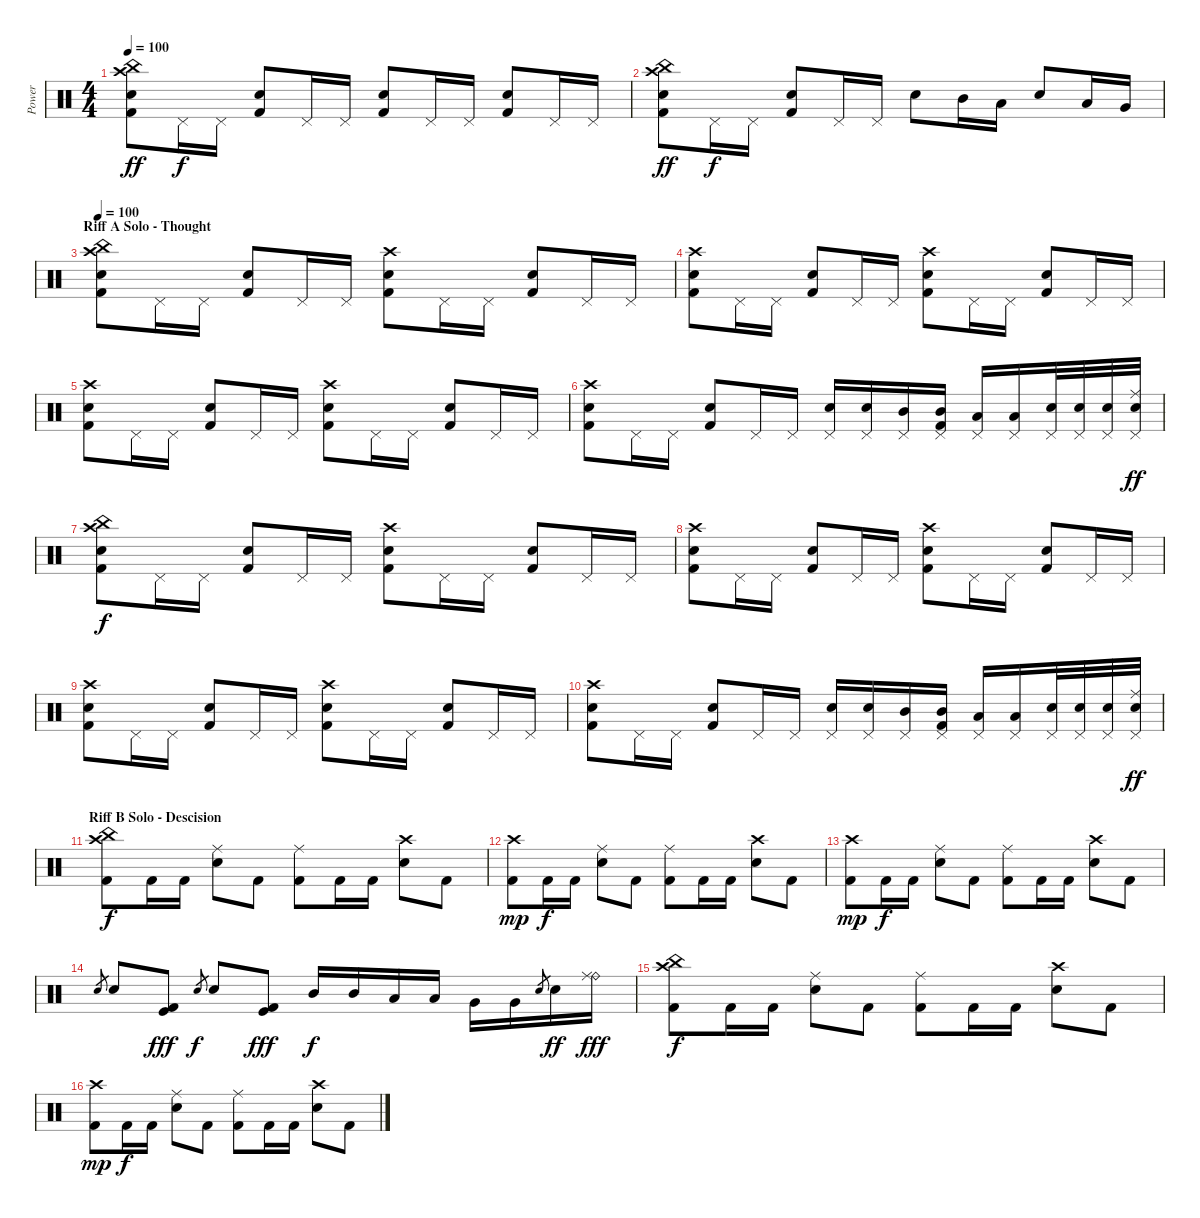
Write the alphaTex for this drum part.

\track ("Power" "Power") {instrument percussion}
\staff {score}
\articulation defaults
\ts (4 4)
\tempo 100
\clef neutral
\ks c
("Crash high (hit)" "China (hit)" "Kick (hit) 2" "Electric Snare (hit)").8{dy ff} "Pedal Hi-Hat (hit)".16{dy f} "Pedal Hi-Hat (hit)".16 ("Kick (hit) 2" "Electric Snare (hit)").8 "Pedal Hi-Hat (hit)".16 "Pedal Hi-Hat (hit)".16 ("Kick (hit) 2" "Electric Snare (hit)").8 "Pedal Hi-Hat (hit)".16 "Pedal Hi-Hat (hit)".16 ("Kick (hit) 2" "Electric Snare (hit)").8 "Pedal Hi-Hat (hit)".16 "Pedal Hi-Hat (hit)".16 |
("Crash high (hit)" "China (hit)" "Kick (hit) 2" "Electric Snare (hit)").8{dy ff} "Pedal Hi-Hat (hit)".16{dy f} "Pedal Hi-Hat (hit)".16 ("Kick (hit) 2" "Electric Snare (hit)").8 "Pedal Hi-Hat (hit)".16 "Pedal Hi-Hat (hit)".16 "Electric Snare (hit)".8 "Mid Tom (hit)".16 "Low Tom (hit)".16 "Electric Snare (hit)".8 "Low Tom (hit)".16 "Very Low Tom (hit)".16 |
\section ("" "Riff A Solo - Thought")
\tempo 100
("China (hit)" "Crash high (hit)" "Kick (hit) 2" "Electric Snare (hit)").8 "Pedal Hi-Hat (hit)".16 "Pedal Hi-Hat (hit)".16 ("Kick (hit) 2" "Electric Snare (hit)").8 "Pedal Hi-Hat (hit)".16 "Pedal Hi-Hat (hit)".16 ("Crash high (hit)" "Kick (hit) 2" "Electric Snare (hit)").8 "Pedal Hi-Hat (hit)".16 "Pedal Hi-Hat (hit)".16 ("Kick (hit) 2" "Electric Snare (hit)").8 "Pedal Hi-Hat (hit)".16 "Pedal Hi-Hat (hit)".16 |
("Crash high (hit)" "Kick (hit) 2" "Electric Snare (hit)").8 "Pedal Hi-Hat (hit)".16 "Pedal Hi-Hat (hit)".16 ("Kick (hit) 2" "Electric Snare (hit)").8 "Pedal Hi-Hat (hit)".16 "Pedal Hi-Hat (hit)".16 ("Crash high (hit)" "Kick (hit) 2" "Electric Snare (hit)").8 "Pedal Hi-Hat (hit)".16 "Pedal Hi-Hat (hit)".16 ("Kick (hit) 2" "Electric Snare (hit)").8 "Pedal Hi-Hat (hit)".16 "Pedal Hi-Hat (hit)".16 |
("Crash high (hit)" "Kick (hit) 2" "Electric Snare (hit)").8 "Pedal Hi-Hat (hit)".16 "Pedal Hi-Hat (hit)".16 ("Kick (hit) 2" "Electric Snare (hit)").8 "Pedal Hi-Hat (hit)".16 "Pedal Hi-Hat (hit)".16 ("Crash high (hit)" "Kick (hit) 2" "Electric Snare (hit)").8 "Pedal Hi-Hat (hit)".16 "Pedal Hi-Hat (hit)".16 ("Kick (hit) 2" "Electric Snare (hit)").8 "Pedal Hi-Hat (hit)".16 "Pedal Hi-Hat (hit)".16 |
("Crash high (hit)" "Kick (hit) 2" "Electric Snare (hit)").8 "Pedal Hi-Hat (hit)".16 "Pedal Hi-Hat (hit)".16 ("Kick (hit) 2" "Electric Snare (hit)").8 "Pedal Hi-Hat (hit)".16 "Pedal Hi-Hat (hit)".16 ("Pedal Hi-Hat (hit)" "Electric Snare (hit)").16 ("Pedal Hi-Hat (hit)" "Electric Snare (hit)").16 ("Pedal Hi-Hat (hit)" "Mid Tom (hit)").16 ("Pedal Hi-Hat (hit)" "Kick (hit) 2" "Mid Tom (hit)").16 ("Pedal Hi-Hat (hit)" "Low Tom (hit)").16 ("Pedal Hi-Hat (hit)" "Low Tom (hit)").16 ("Pedal Hi-Hat (hit)" "Electric Snare (hit)").32 ("Pedal Hi-Hat (hit)" "Electric Snare (hit)").32 ("Pedal Hi-Hat (hit)" "Electric Snare (hit)").32 ("Ride (middle)" "Pedal Hi-Hat (hit)" "Electric Snare (hit)").32{dy ff} |
("China (hit)" "Crash high (hit)" "Kick (hit) 2" "Electric Snare (hit)").8{dy f} "Pedal Hi-Hat (hit)".16 "Pedal Hi-Hat (hit)".16 ("Kick (hit) 2" "Electric Snare (hit)").8 "Pedal Hi-Hat (hit)".16 "Pedal Hi-Hat (hit)".16 ("Crash high (hit)" "Kick (hit) 2" "Electric Snare (hit)").8 "Pedal Hi-Hat (hit)".16 "Pedal Hi-Hat (hit)".16 ("Kick (hit) 2" "Electric Snare (hit)").8 "Pedal Hi-Hat (hit)".16 "Pedal Hi-Hat (hit)".16 |
("Crash high (hit)" "Kick (hit) 2" "Electric Snare (hit)").8 "Pedal Hi-Hat (hit)".16 "Pedal Hi-Hat (hit)".16 ("Kick (hit) 2" "Electric Snare (hit)").8 "Pedal Hi-Hat (hit)".16 "Pedal Hi-Hat (hit)".16 ("Crash high (hit)" "Kick (hit) 2" "Electric Snare (hit)").8 "Pedal Hi-Hat (hit)".16 "Pedal Hi-Hat (hit)".16 ("Kick (hit) 2" "Electric Snare (hit)").8 "Pedal Hi-Hat (hit)".16 "Pedal Hi-Hat (hit)".16 |
("Crash high (hit)" "Kick (hit) 2" "Electric Snare (hit)").8 "Pedal Hi-Hat (hit)".16 "Pedal Hi-Hat (hit)".16 ("Kick (hit) 2" "Electric Snare (hit)").8 "Pedal Hi-Hat (hit)".16 "Pedal Hi-Hat (hit)".16 ("Crash high (hit)" "Kick (hit) 2" "Electric Snare (hit)").8 "Pedal Hi-Hat (hit)".16 "Pedal Hi-Hat (hit)".16 ("Kick (hit) 2" "Electric Snare (hit)").8 "Pedal Hi-Hat (hit)".16 "Pedal Hi-Hat (hit)".16 |
("Crash high (hit)" "Kick (hit) 2" "Electric Snare (hit)").8 "Pedal Hi-Hat (hit)".16 "Pedal Hi-Hat (hit)".16 ("Kick (hit) 2" "Electric Snare (hit)").8 "Pedal Hi-Hat (hit)".16 "Pedal Hi-Hat (hit)".16 ("Pedal Hi-Hat (hit)" "Electric Snare (hit)").16 ("Pedal Hi-Hat (hit)" "Electric Snare (hit)").16 ("Pedal Hi-Hat (hit)" "Mid Tom (hit)").16 ("Pedal Hi-Hat (hit)" "Kick (hit) 2" "Mid Tom (hit)").16 ("Pedal Hi-Hat (hit)" "Low Tom (hit)").16 ("Pedal Hi-Hat (hit)" "Low Tom (hit)").16 ("Pedal Hi-Hat (hit)" "Electric Snare (hit)").32 ("Pedal Hi-Hat (hit)" "Electric Snare (hit)").32 ("Pedal Hi-Hat (hit)" "Electric Snare (hit)").32 ("Ride (middle)" "Pedal Hi-Hat (hit)" "Electric Snare (hit)").32{dy ff} |
\section ("" "Riff B Solo - Descision")
("China (hit)" "Crash high (hit)" "Kick (hit) 2").8{dy f} "Kick (hit) 2".16 "Kick (hit) 2".16 ("Ride (middle)" "Electric Snare (hit)").8 "Kick (hit) 2".8 ("Ride (middle)" "Kick (hit) 2").8 "Kick (hit) 2".16 "Kick (hit) 2".16 ("Crash high (hit)" "Electric Snare (hit)").8 "Kick (hit) 2".8 |
("Crash high (hit)" "Kick (hit) 2").8{dy mp} "Kick (hit) 2".16{dy f} "Kick (hit) 2".16 ("Ride (middle)" "Electric Snare (hit)").8 "Kick (hit) 2".8 ("Ride (middle)" "Kick (hit) 2").8 "Kick (hit) 2".16 "Kick (hit) 2".16 ("Crash high (hit)" "Electric Snare (hit)").8 "Kick (hit) 2".8 |
("Crash high (hit)" "Kick (hit) 2").8{dy mp} "Kick (hit) 2".16{dy f} "Kick (hit) 2".16 ("Ride (middle)" "Electric Snare (hit)").8 "Kick (hit) 2".8 ("Ride (middle)" "Kick (hit) 2").8 "Kick (hit) 2".16 "Kick (hit) 2".16 ("Crash high (hit)" "Electric Snare (hit)").8 "Kick (hit) 2".8 |
"Electric Snare (hit)".8{gr} "Electric Snare (hit)".8 ("Kick (hit)" "Kick (hit) 2").8{dy fff} "Electric Snare (hit)".8{gr dy f} "Electric Snare (hit)".8 ("Kick (hit)" "Kick (hit) 2").8{dy fff} "Mid Tom (hit)".16{dy f} "Mid Tom (hit)".16 "Low Tom (hit)".16 "Low Tom (hit)".16 "Very Low Tom (hit)".16 "Very Low Tom (hit)".16 "Electric Snare (hit)".8{gr} "Electric Snare (hit)".16{dy ff} ("Ride (bell)" "Ride (middle)").16{dy fff} |
("China (hit)" "Crash high (hit)" "Kick (hit) 2").8{dy f} "Kick (hit) 2".16 "Kick (hit) 2".16 ("Ride (middle)" "Electric Snare (hit)").8 "Kick (hit) 2".8 ("Ride (middle)" "Kick (hit) 2").8 "Kick (hit) 2".16 "Kick (hit) 2".16 ("Crash high (hit)" "Electric Snare (hit)").8 "Kick (hit) 2".8 |
("Crash high (hit)" "Kick (hit) 2").8{dy mp} "Kick (hit) 2".16{dy f} "Kick (hit) 2".16 ("Ride (middle)" "Electric Snare (hit)").8 "Kick (hit) 2".8 ("Ride (middle)" "Kick (hit) 2").8 "Kick (hit) 2".16 "Kick (hit) 2".16 ("Crash high (hit)" "Electric Snare (hit)").8 "Kick (hit) 2".8
